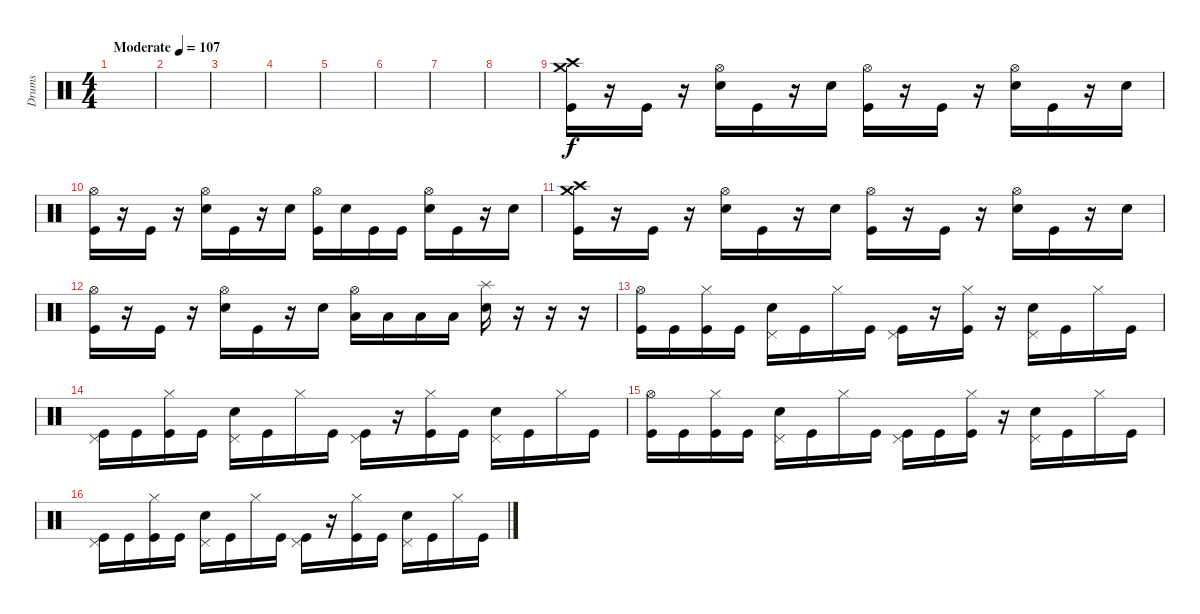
\track ("Drums" "Drums") {instrument percussion}
\staff {score}
\articulation defaults
\ts (4 4)
\tempo (107 "Moderate")
\clef neutral
\ks c
|
|
|
|
|
|
|
|
("Crash high (hit)" "Kick (hit)" "Crash medium (hit)").16 r.16 "Kick (hit)".16 r.16 ("Hi-Hat (open)" "Electric Snare (hit)").16 "Kick (hit)".16 r.16 "Electric Snare (hit)".16 ("Hi-Hat (open)" "Kick (hit)").16 r.16 "Kick (hit)".16 r.16 ("Hi-Hat (open)" "Electric Snare (hit)").16 "Kick (hit)".16 r.16 "Electric Snare (hit)".16 |
("Hi-Hat (open)" "Kick (hit)").16 r.16 "Kick (hit)".16 r.16 ("Hi-Hat (open)" "Electric Snare (hit)").16 "Kick (hit)".16 r.16 "Electric Snare (hit)".16 ("Hi-Hat (open)" "Kick (hit)").16 "Electric Snare (hit)".16 "Kick (hit)".16 "Kick (hit)".16 ("Hi-Hat (open)" "Electric Snare (hit)").16 "Kick (hit)".16 r.16 "Electric Snare (hit)".16 |
("Crash high (hit)" "Kick (hit)" "Crash medium (hit)").16 r.16 "Kick (hit)".16 r.16 ("Hi-Hat (open)" "Electric Snare (hit)").16 "Kick (hit)".16 r.16 "Electric Snare (hit)".16 ("Hi-Hat (open)" "Kick (hit)").16 r.16 "Kick (hit)".16 r.16 ("Hi-Hat (open)" "Electric Snare (hit)").16 "Kick (hit)".16 r.16 "Electric Snare (hit)".16 |
("Hi-Hat (open)" "Kick (hit)").16 r.16 "Kick (hit)".16 r.16 ("Hi-Hat (open)" "Electric Snare (hit)").16 "Kick (hit)".16 r.16 "Electric Snare (hit)".16 ("Hi-Hat (open)" "Low Floor Tom (hit)").16 "Low Floor Tom (hit)".16 "Low Floor Tom (hit)".16 "Low Floor Tom (hit)".16 ("Splash (hit)" "Electric Snare (hit)").16 r.16 r.16 r.16 |
("Hi-Hat (open)" "Kick (hit)").16 "Kick (hit)".16 ("Hi-Hat (closed)" "Kick (hit)").16 "Kick (hit)".16 ("Pedal Hi-Hat (hit)" "Electric Snare (hit)").16 "Kick (hit)".16 "Hi-Hat (closed)".16 "Kick (hit)".16 ("Pedal Hi-Hat (hit)" "Kick (hit)").16 r.16 ("Hi-Hat (closed)" "Kick (hit)").16 r.16 ("Pedal Hi-Hat (hit)" "Electric Snare (hit)").16 "Kick (hit)".16 "Hi-Hat (closed)".16 "Kick (hit)".16 |
("Pedal Hi-Hat (hit)" "Kick (hit)").16 "Kick (hit)".16 ("Hi-Hat (closed)" "Kick (hit)").16 "Kick (hit)".16 ("Pedal Hi-Hat (hit)" "Electric Snare (hit)").16 "Kick (hit)".16 "Hi-Hat (closed)".16 "Kick (hit)".16 ("Pedal Hi-Hat (hit)" "Kick (hit)").16 r.16 ("Hi-Hat (closed)" "Kick (hit)").16 "Kick (hit)".16 ("Pedal Hi-Hat (hit)" "Electric Snare (hit)").16 "Kick (hit)".16 "Hi-Hat (closed)".16 "Kick (hit)".16 |
("Hi-Hat (open)" "Kick (hit)").16 "Kick (hit)".16 ("Hi-Hat (closed)" "Kick (hit)").16 "Kick (hit)".16 ("Pedal Hi-Hat (hit)" "Electric Snare (hit)").16 "Kick (hit)".16 "Hi-Hat (closed)".16 "Kick (hit)".16 ("Pedal Hi-Hat (hit)" "Kick (hit)").16 "Kick (hit)".16 ("Hi-Hat (closed)" "Kick (hit)").16 r.16 ("Pedal Hi-Hat (hit)" "Electric Snare (hit)").16 "Kick (hit)".16 "Hi-Hat (closed)".16 "Kick (hit)".16 |
("Pedal Hi-Hat (hit)" "Kick (hit)").16 "Kick (hit)".16 ("Hi-Hat (closed)" "Kick (hit)").16 "Kick (hit)".16 ("Pedal Hi-Hat (hit)" "Electric Snare (hit)").16 "Kick (hit)".16 "Hi-Hat (closed)".16 "Kick (hit)".16 ("Pedal Hi-Hat (hit)" "Kick (hit)").16 r.16 ("Hi-Hat (closed)" "Kick (hit)").16 "Kick (hit)".16 ("Pedal Hi-Hat (hit)" "Electric Snare (hit)").16 "Kick (hit)".16 "Hi-Hat (closed)".16 "Kick (hit)".16
